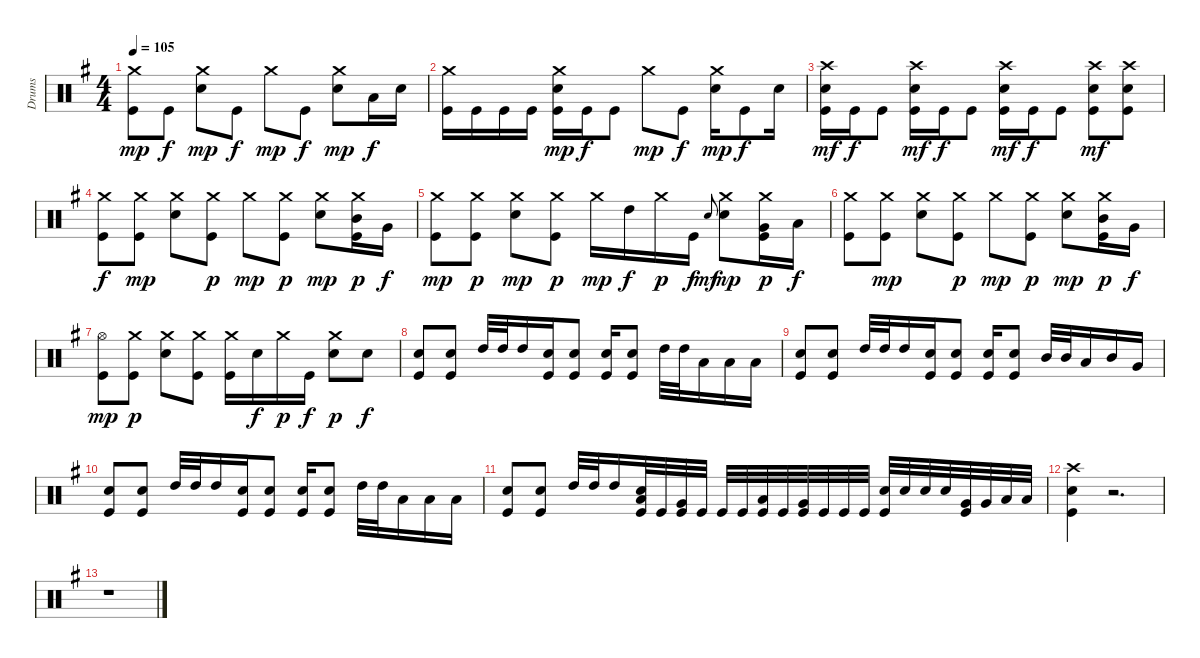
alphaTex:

\track ("Drums" "Drums") {instrument percussion}
\staff {score}
\articulation defaults
\ts (4 4)
\tempo 105
\clef neutral
\ks eminor
("Crash medium (hit)" "Kick (hit)").8{dy mp} "Kick (hit)".8{dy f} ("Crash medium (hit)" "Snare (hit) 2").8{dy mp} "Kick (hit)".8{dy f} "Crash medium (hit)".8{dy mp} "Kick (hit)".8{dy f} ("Crash medium (hit)" "Snare (hit) 2").8{dy mp} "Low Floor Tom (hit)".16{dy f} "Snare (hit) 2".16 |
("Crash medium (hit)" "Kick (hit)").16 "Kick (hit)".16 "Kick (hit)".16 "Kick (hit)".16 ("Crash medium (hit)" "Snare (hit) 2" "Kick (hit)").16{dy mp} "Kick (hit)".16{dy f} "Kick (hit)".8 "Crash medium (hit)".8{dy mp} "Kick (hit)".8{dy f} ("Crash medium (hit)" "Snare (hit) 2").16{dy mp} "Kick (hit)".8{dy f} "Snare (hit) 2".16 |
("Crash high (hit)" "Snare (hit) 2" "Kick (hit)").16{dy mf} "Kick (hit)".16{dy f} "Kick (hit)".8 ("Crash high (hit)" "Snare (hit) 2" "Kick (hit)").16{dy mf} "Kick (hit)".16{dy f} "Kick (hit)".8 ("Crash high (hit)" "Snare (hit) 2" "Kick (hit)").16{dy mf} "Kick (hit)".16{dy f} "Kick (hit)".8 ("Crash high (hit)" "Snare (hit) 2" "Kick (hit)").8{dy mf} ("Crash high (hit)" "Snare (hit) 2" "Kick (hit)").8 |
("Crash medium (hit)" "Kick (hit)").8{dy f} ("Crash medium (hit)" "Kick (hit)").8{dy mp} ("Crash medium (hit)" "Snare (hit) 2").8 ("Crash medium (hit)" "Kick (hit)").8{dy p} "Crash medium (hit)".8{dy mp} ("Crash medium (hit)" "Kick (hit)").8{dy p} ("Crash medium (hit)" "Snare (hit) 2").8{dy mp} ("Crash medium (hit)" "Mid Tom (hit)" "Kick (hit)").16{dy p} "Very Low Tom (hit)".16{dy f} |
("Crash medium (hit)" "Kick (hit)").8{dy mp} ("Crash medium (hit)" "Kick (hit)").8{dy p} ("Crash medium (hit)" "Snare (hit) 2").8{dy mp} ("Crash medium (hit)" "Kick (hit)").8{dy p} "Crash medium (hit)".16{dy mp} "High Tom (hit)".16{dy f} "Crash medium (hit)".16{dy p} "Kick (hit)".16{dy f} "Snare (hit) 2".8{gr onbeat dy mf} ("Crash medium (hit)" "Snare (hit) 2").8{dy mp} ("Crash medium (hit)" "Very Low Tom (hit)" "Kick (hit)").16{dy p} "Low Floor Tom (hit)".16{dy f} |
("Crash medium (hit)" "Kick (hit)").8 ("Crash medium (hit)" "Kick (hit)").8{dy mp} ("Crash medium (hit)" "Snare (hit) 2").8 ("Crash medium (hit)" "Kick (hit)").8{dy p} "Crash medium (hit)".8{dy mp} ("Crash medium (hit)" "Kick (hit)").8{dy p} ("Crash medium (hit)" "Snare (hit) 2").8{dy mp} ("Crash medium (hit)" "Mid Tom (hit)" "Kick (hit)").16{dy p} "Very Low Tom (hit)".16{dy f} |
("Hi-Hat (open)" "Kick (hit)").8{dy mp} ("Crash medium (hit)" "Kick (hit)").8{dy p} ("Crash medium (hit)" "Snare (hit) 2").8 ("Crash medium (hit)" "Kick (hit)").8 ("Crash medium (hit)" "Kick (hit)").16 "Snare (hit) 2".16{dy f} "Crash medium (hit)".16{dy p} "Kick (hit)".16{dy f} ("Crash medium (hit)" "Snare (hit) 2").8{dy p} "Snare (hit) 2".8{dy f} |
("Snare (hit) 2" "Kick (hit)").8 ("Snare (hit) 2" "Kick (hit)").8 "High Tom (hit)".32 "High Tom (hit)".32 "High Tom (hit)".16 ("Snare (hit) 2" "Kick (hit)").16 ("Snare (hit) 2" "Kick (hit)").8 ("Snare (hit) 2" "Kick (hit)").16 ("Snare (hit) 2" "Kick (hit)").8 "High Tom (hit)".32 "High Tom (hit)".32 "Low Tom (hit)".16 "Low Floor Tom (hit)".16 "Low Floor Tom (hit)".16 |
("Snare (hit) 2" "Kick (hit)").8 ("Snare (hit) 2" "Kick (hit)").8 "High Tom (hit)".32 "High Tom (hit)".32 "High Tom (hit)".16 ("Snare (hit) 2" "Kick (hit)").16 ("Snare (hit) 2" "Kick (hit)").8 ("Snare (hit) 2" "Kick (hit)").16 ("Snare (hit) 2" "Kick (hit)").8 "Mid Tom (hit)".32 "Mid Tom (hit)".32 "Low Tom (hit)".16 "Mid Tom (hit)".16 "Very Low Tom (hit)".16 |
("Snare (hit) 2" "Kick (hit)").8 ("Snare (hit) 2" "Kick (hit)").8 "High Tom (hit)".32 "High Tom (hit)".32 "High Tom (hit)".16 ("Snare (hit) 2" "Kick (hit)").16 ("Snare (hit) 2" "Kick (hit)").8 ("Snare (hit) 2" "Kick (hit)").16 ("Snare (hit) 2" "Kick (hit)").8 "High Tom (hit)".32 "High Tom (hit)".32 "Low Tom (hit)".16 "Low Floor Tom (hit)".16 "Low Floor Tom (hit)".16 |
("Snare (hit) 2" "Kick (hit)").8 ("Snare (hit) 2" "Kick (hit)").8 "High Tom (hit)".32 "High Tom (hit)".32 "High Tom (hit)".16 ("Low Tom (hit)" "Snare (hit) 2" "Kick (hit)").32 "Kick (hit)".32 ("Very Low Tom (hit)" "Kick (hit)").32 "Kick (hit)".32 "Kick (hit)".32 "Kick (hit)".32 ("Low Tom (hit)" "Kick (hit)").32 "Kick (hit)".32 ("Very Low Tom (hit)" "Kick (hit)").32 "Kick (hit)".32 "Kick (hit)".32 "Kick (hit)".32 ("Snare (hit) 2" "Kick (hit)").32 "Snare (hit) 2".32 "Snare (hit) 2".32 "Snare (hit) 2".32 ("Very Low Tom (hit)" "Kick (hit)").32 "Very Low Tom (hit)".32 "Low Floor Tom (hit)".32 "Low Floor Tom (hit)".32 |
("Crash high (hit)" "Snare (hit) 2" "Kick (hit)").4 r.2{d} |
r.1
